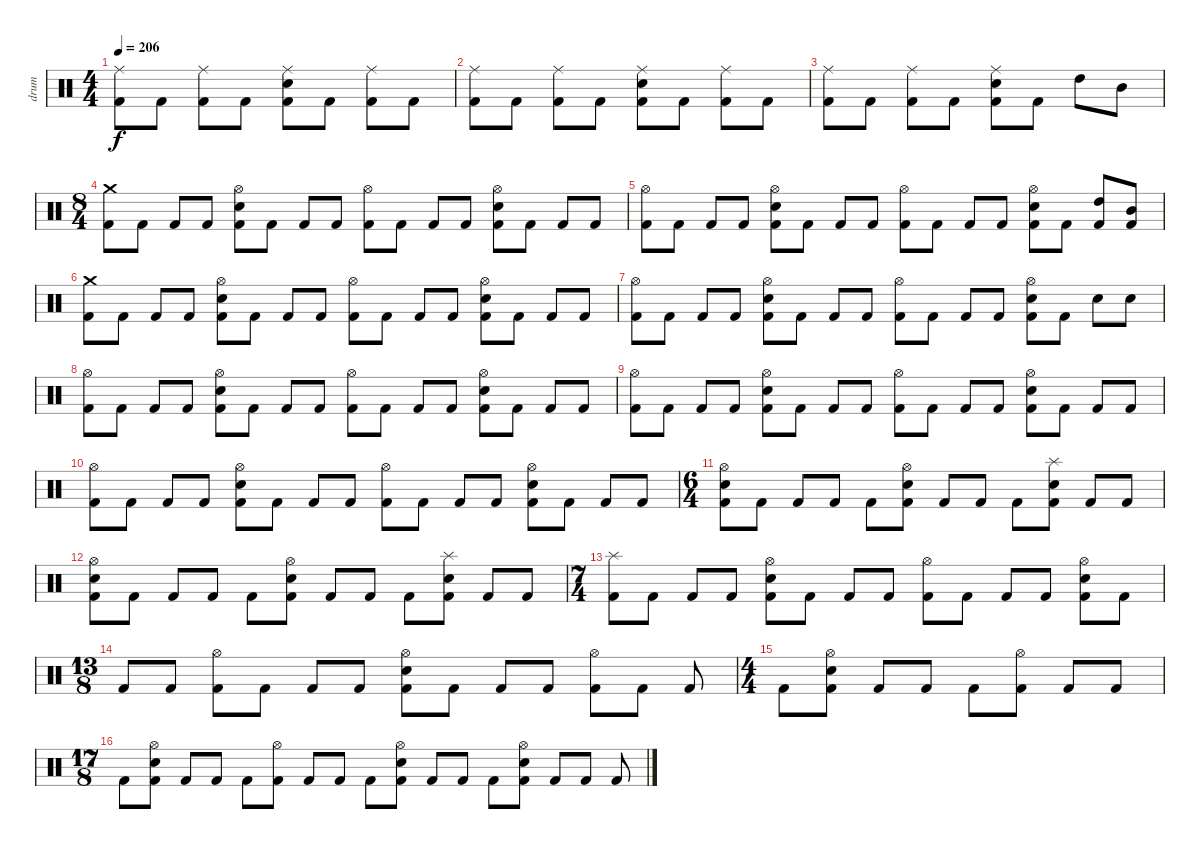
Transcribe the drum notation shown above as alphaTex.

\track ("drum" "drum") {instrument percussion}
\staff {score}
\articulation defaults
\ts (4 4)
\tempo 206
\clef neutral
\ks c
("Ride (middle)" "Kick (hit) 2").8{dy f} "Kick (hit) 2".8 ("Ride (middle)" "Kick (hit) 2").8 "Kick (hit) 2".8 ("Ride (middle)" "Electric Snare (hit)" "Kick (hit) 2").8 "Kick (hit) 2".8 ("Ride (middle)" "Kick (hit) 2").8 "Kick (hit) 2".8 |
("Ride (middle)" "Kick (hit) 2").8 "Kick (hit) 2".8 ("Ride (middle)" "Kick (hit) 2").8 "Kick (hit) 2".8 ("Ride (middle)" "Electric Snare (hit)" "Kick (hit) 2").8 "Kick (hit) 2".8 ("Ride (middle)" "Kick (hit) 2").8 "Kick (hit) 2".8 |
("Ride (middle)" "Kick (hit) 2").8 "Kick (hit) 2".8 ("Ride (middle)" "Kick (hit) 2").8 "Kick (hit) 2".8 ("Ride (middle)" "Electric Snare (hit)" "Kick (hit) 2").8 "Kick (hit) 2".8 "High Tom (hit)".8 "Mid Tom (hit)".8 |
\ts (8 4)
("Crash medium (hit)" "Kick (hit) 2").8 "Kick (hit) 2".8 "Kick (hit) 2".8 "Kick (hit) 2".8 ("Hi-Hat (open)" "Electric Snare (hit)" "Kick (hit) 2").8 "Kick (hit) 2".8 "Kick (hit) 2".8 "Kick (hit) 2".8 ("Hi-Hat (open)" "Kick (hit) 2").8 "Kick (hit) 2".8 "Kick (hit) 2".8 "Kick (hit) 2".8 ("Hi-Hat (open)" "Electric Snare (hit)" "Kick (hit) 2").8 "Kick (hit) 2".8 "Kick (hit) 2".8 "Kick (hit) 2".8 |
("Hi-Hat (open)" "Kick (hit) 2").8 "Kick (hit) 2".8 "Kick (hit) 2".8 "Kick (hit) 2".8 ("Hi-Hat (open)" "Electric Snare (hit)" "Kick (hit) 2").8 "Kick (hit) 2".8 "Kick (hit) 2".8 "Kick (hit) 2".8 ("Hi-Hat (open)" "Kick (hit) 2").8 "Kick (hit) 2".8 "Kick (hit) 2".8 "Kick (hit) 2".8 ("Hi-Hat (open)" "Electric Snare (hit)" "Kick (hit) 2").8 "Kick (hit) 2".8 ("High Tom (hit)" "Kick (hit) 2").8 ("Mid Tom (hit)" "Kick (hit) 2").8 |
("Crash medium (hit)" "Kick (hit) 2").8 "Kick (hit) 2".8 "Kick (hit) 2".8 "Kick (hit) 2".8 ("Hi-Hat (open)" "Electric Snare (hit)" "Kick (hit) 2").8 "Kick (hit) 2".8 "Kick (hit) 2".8 "Kick (hit) 2".8 ("Hi-Hat (open)" "Kick (hit) 2").8 "Kick (hit) 2".8 "Kick (hit) 2".8 "Kick (hit) 2".8 ("Hi-Hat (open)" "Electric Snare (hit)" "Kick (hit) 2").8 "Kick (hit) 2".8 "Kick (hit) 2".8 "Kick (hit) 2".8 |
("Hi-Hat (open)" "Kick (hit) 2").8 "Kick (hit) 2".8 "Kick (hit) 2".8 "Kick (hit) 2".8 ("Hi-Hat (open)" "Electric Snare (hit)" "Kick (hit) 2").8 "Kick (hit) 2".8 "Kick (hit) 2".8 "Kick (hit) 2".8 ("Hi-Hat (open)" "Kick (hit) 2").8 "Kick (hit) 2".8 "Kick (hit) 2".8 "Kick (hit) 2".8 ("Hi-Hat (open)" "Electric Snare (hit)" "Kick (hit) 2").8 "Kick (hit) 2".8 "Electric Snare (hit)".8 "Electric Snare (hit)".8 |
("Hi-Hat (open)" "Kick (hit) 2").8 "Kick (hit) 2".8 "Kick (hit) 2".8 "Kick (hit) 2".8 ("Hi-Hat (open)" "Electric Snare (hit)" "Kick (hit) 2").8 "Kick (hit) 2".8 "Kick (hit) 2".8 "Kick (hit) 2".8 ("Hi-Hat (open)" "Kick (hit) 2").8 "Kick (hit) 2".8 "Kick (hit) 2".8 "Kick (hit) 2".8 ("Hi-Hat (open)" "Electric Snare (hit)" "Kick (hit) 2").8 "Kick (hit) 2".8 "Kick (hit) 2".8 "Kick (hit) 2".8 |
("Hi-Hat (open)" "Kick (hit) 2").8 "Kick (hit) 2".8 "Kick (hit) 2".8 "Kick (hit) 2".8 ("Hi-Hat (open)" "Electric Snare (hit)" "Kick (hit) 2").8 "Kick (hit) 2".8 "Kick (hit) 2".8 "Kick (hit) 2".8 ("Hi-Hat (open)" "Kick (hit) 2").8 "Kick (hit) 2".8 "Kick (hit) 2".8 "Kick (hit) 2".8 ("Hi-Hat (open)" "Electric Snare (hit)" "Kick (hit) 2").8 "Kick (hit) 2".8 "Kick (hit) 2".8 "Kick (hit) 2".8 |
("Hi-Hat (open)" "Kick (hit) 2").8 "Kick (hit) 2".8 "Kick (hit) 2".8 "Kick (hit) 2".8 ("Hi-Hat (open)" "Electric Snare (hit)" "Kick (hit) 2").8 "Kick (hit) 2".8 "Kick (hit) 2".8 "Kick (hit) 2".8 ("Hi-Hat (open)" "Kick (hit) 2").8 "Kick (hit) 2".8 "Kick (hit) 2".8 "Kick (hit) 2".8 ("Hi-Hat (open)" "Electric Snare (hit)" "Kick (hit) 2").8 "Kick (hit) 2".8 "Kick (hit) 2".8 "Kick (hit) 2".8 |
\ts (6 4)
("Hi-Hat (open)" "Electric Snare (hit)" "Kick (hit) 2").8 "Kick (hit) 2".8 "Kick (hit) 2".8 "Kick (hit) 2".8 "Kick (hit) 2".8 ("Hi-Hat (open)" "Electric Snare (hit)" "Kick (hit) 2").8 "Kick (hit) 2".8 "Kick (hit) 2".8 "Kick (hit) 2".8 ("Splash (hit)" "Electric Snare (hit)" "Kick (hit) 2").8 "Kick (hit) 2".8 "Kick (hit) 2".8 |
("Hi-Hat (open)" "Electric Snare (hit)" "Kick (hit) 2").8 "Kick (hit) 2".8 "Kick (hit) 2".8 "Kick (hit) 2".8 "Kick (hit) 2".8 ("Hi-Hat (open)" "Electric Snare (hit)" "Kick (hit) 2").8 "Kick (hit) 2".8 "Kick (hit) 2".8 "Kick (hit) 2".8 ("Splash (hit)" "Electric Snare (hit)" "Kick (hit) 2").8 "Kick (hit) 2".8 "Kick (hit) 2".8 |
\ts (7 4)
("Splash (hit)" "Kick (hit) 2").8 "Kick (hit) 2".8 "Kick (hit) 2".8 "Kick (hit) 2".8 ("Hi-Hat (open)" "Electric Snare (hit)" "Kick (hit) 2").8 "Kick (hit) 2".8 "Kick (hit) 2".8 "Kick (hit) 2".8 ("Hi-Hat (open)" "Kick (hit) 2").8 "Kick (hit) 2".8 "Kick (hit) 2".8 "Kick (hit) 2".8 ("Hi-Hat (open)" "Electric Snare (hit)" "Kick (hit) 2").8 "Kick (hit) 2".8 |
\ts (13 8)
"Kick (hit) 2".8 "Kick (hit) 2".8 ("Hi-Hat (open)" "Kick (hit) 2").8 "Kick (hit) 2".8 "Kick (hit) 2".8 "Kick (hit) 2".8 ("Hi-Hat (open)" "Electric Snare (hit)" "Kick (hit) 2").8 "Kick (hit) 2".8 "Kick (hit) 2".8 "Kick (hit) 2".8 ("Hi-Hat (open)" "Kick (hit) 2").8 "Kick (hit) 2".8 "Kick (hit) 2".8 |
\ts (4 4)
"Kick (hit) 2".8 ("Hi-Hat (open)" "Electric Snare (hit)" "Kick (hit) 2").8 "Kick (hit) 2".8 "Kick (hit) 2".8 "Kick (hit) 2".8 ("Hi-Hat (open)" "Kick (hit) 2").8 "Kick (hit) 2".8 "Kick (hit) 2".8 |
\ts (17 8)
"Kick (hit) 2".8 ("Hi-Hat (open)" "Electric Snare (hit)" "Kick (hit) 2").8 "Kick (hit) 2".8 "Kick (hit) 2".8 "Kick (hit) 2".8 ("Hi-Hat (open)" "Kick (hit) 2").8 "Kick (hit) 2".8 "Kick (hit) 2".8 "Kick (hit) 2".8 ("Hi-Hat (open)" "Electric Snare (hit)" "Kick (hit) 2").8 "Kick (hit) 2".8 "Kick (hit) 2".8 "Kick (hit) 2".8 ("Hi-Hat (open)" "Electric Snare (hit)" "Kick (hit) 2").8 "Kick (hit) 2".8 "Kick (hit) 2".8 "Kick (hit) 2".8
